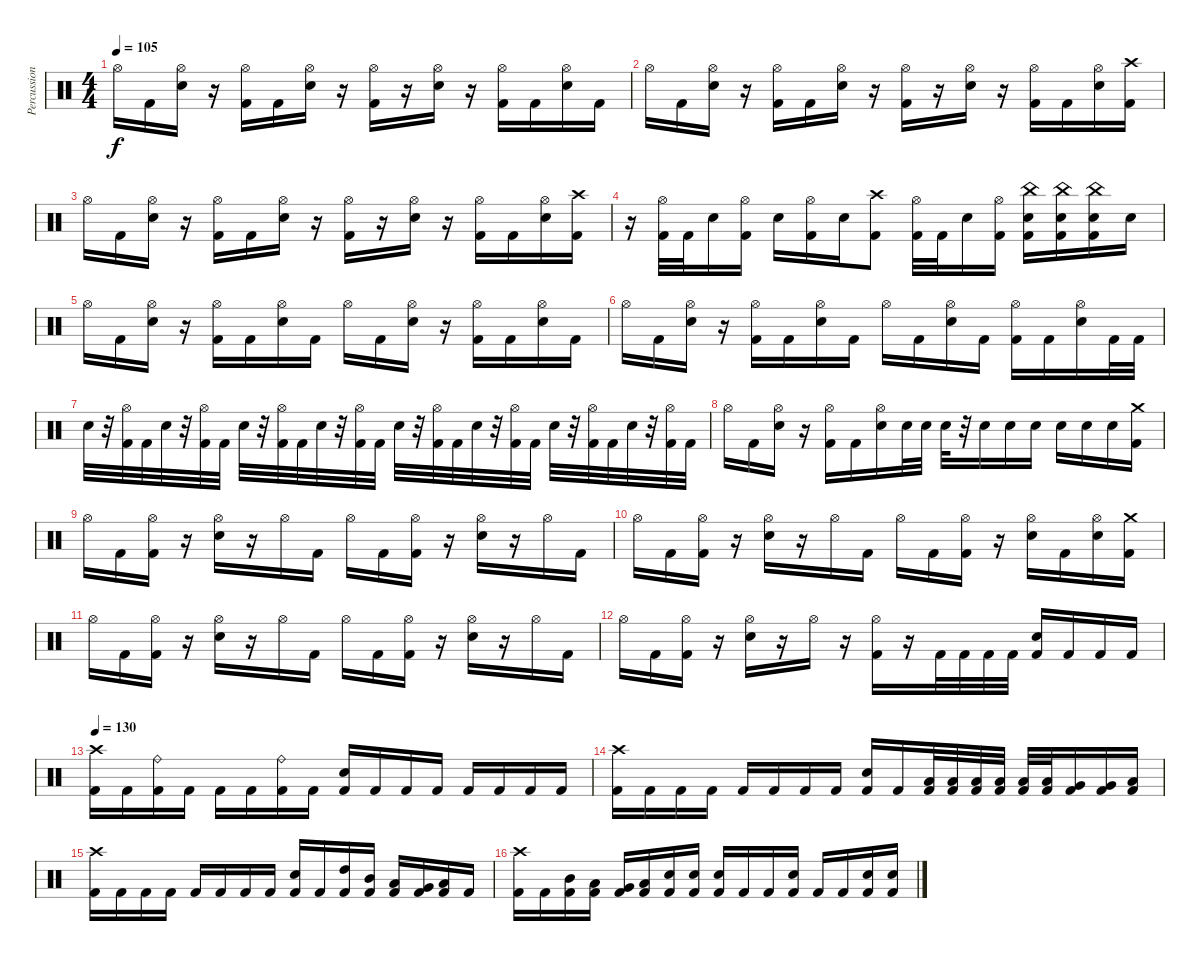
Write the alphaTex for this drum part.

\track ("Percussion" "Percussion") {instrument percussion}
\staff {score}
\articulation defaults
\ts (4 4)
\tempo 105
\clef neutral
\ks c "Hi-Hat (open)".16{dy f} "Kick (hit) 2".16
("Hi-Hat (open)" "Electric Snare (hit)").16 r.16 ("Hi-Hat (open)" "Kick (hit) 2").16 "Kick (hit) 2".16 ("Hi-Hat (open)" "Electric Snare (hit)").16 r.16 ("Hi-Hat (open)" "Kick (hit) 2").16 r.16 ("Hi-Hat (open)" "Electric Snare (hit)").16 r.16 ("Hi-Hat (open)" "Kick (hit) 2").16 "Kick (hit) 2".16 ("Hi-Hat (open)" "Electric Snare (hit)").16 "Kick (hit) 2".16 |
"Hi-Hat (open)".16 "Kick (hit) 2".16 ("Hi-Hat (open)" "Electric Snare (hit)").16 r.16 ("Hi-Hat (open)" "Kick (hit) 2").16 "Kick (hit) 2".16 ("Hi-Hat (open)" "Electric Snare (hit)").16 r.16 ("Hi-Hat (open)" "Kick (hit) 2").16 r.16 ("Hi-Hat (open)" "Electric Snare (hit)").16 r.16 ("Hi-Hat (open)" "Kick (hit) 2").16 "Kick (hit) 2".16 ("Hi-Hat (open)" "Electric Snare (hit)").16 ("Crash high (hit)" "Kick (hit) 2").16 |
"Hi-Hat (open)".16 "Kick (hit) 2".16 ("Hi-Hat (open)" "Electric Snare (hit)").16 r.16 ("Hi-Hat (open)" "Kick (hit) 2").16 "Kick (hit) 2".16 ("Hi-Hat (open)" "Electric Snare (hit)").16 r.16 ("Hi-Hat (open)" "Kick (hit) 2").16 r.16 ("Hi-Hat (open)" "Electric Snare (hit)").16 r.16 ("Hi-Hat (open)" "Kick (hit) 2").16 "Kick (hit) 2".16 ("Hi-Hat (open)" "Electric Snare (hit)").16 ("Crash high (hit)" "Kick (hit) 2").16 |
r.16 ("Hi-Hat (open)" "Kick (hit) 2").32 "Kick (hit) 2".32 "Electric Snare (hit)".16 ("Hi-Hat (open)" "Kick (hit) 2").16 "Electric Snare (hit)".16 ("Hi-Hat (open)" "Kick (hit) 2").16 "Electric Snare (hit)".16 ("Crash high (hit)" "Kick (hit) 2").8 ("Hi-Hat (open)" "Kick (hit) 2").32 "Kick (hit) 2".32 "Electric Snare (hit)".16 ("Hi-Hat (open)" "Kick (hit) 2").16 ("China (hit)" "Electric Snare (hit)" "Kick (hit) 2").16 ("China (hit)" "Electric Snare (hit)" "Kick (hit) 2").16 ("China (hit)" "Electric Snare (hit)" "Kick (hit) 2").16 "Electric Snare (hit)".16 |
"Hi-Hat (open)".16 "Kick (hit) 2".16 ("Hi-Hat (open)" "Electric Snare (hit)").16 r.16 ("Hi-Hat (open)" "Kick (hit) 2").16 "Kick (hit) 2".16 ("Hi-Hat (open)" "Electric Snare (hit)").16 "Kick (hit) 2".16 "Hi-Hat (open)".16 "Kick (hit) 2".16 ("Hi-Hat (open)" "Electric Snare (hit)").16 r.16 ("Hi-Hat (open)" "Kick (hit) 2").16 "Kick (hit) 2".16 ("Hi-Hat (open)" "Electric Snare (hit)").16 "Kick (hit) 2".16 |
"Hi-Hat (open)".16 "Kick (hit) 2".16 ("Hi-Hat (open)" "Electric Snare (hit)").16 r.16 ("Hi-Hat (open)" "Kick (hit) 2").16 "Kick (hit) 2".16 ("Hi-Hat (open)" "Electric Snare (hit)").16 "Kick (hit) 2".16 "Hi-Hat (open)".16 "Kick (hit) 2".16 ("Hi-Hat (open)" "Electric Snare (hit)").16 "Kick (hit) 2".16 ("Hi-Hat (open)" "Kick (hit) 2").16 "Kick (hit) 2".16 ("Hi-Hat (open)" "Electric Snare (hit)").16 "Kick (hit) 2".32 "Kick (hit) 2".32 |
"Electric Snare (hit)".32 r.32 ("Hi-Hat (open)" "Kick (hit) 2").32 "Kick (hit) 2".32 "Electric Snare (hit)".32 r.32 ("Hi-Hat (open)" "Kick (hit) 2").32 "Kick (hit) 2".32 "Electric Snare (hit)".32 r.32 ("Hi-Hat (open)" "Kick (hit) 2").32 "Kick (hit) 2".32 "Electric Snare (hit)".32 r.32 ("Hi-Hat (open)" "Kick (hit) 2").32 "Kick (hit) 2".32 "Electric Snare (hit)".32 r.32 ("Hi-Hat (open)" "Kick (hit) 2").32 "Kick (hit) 2".32 "Electric Snare (hit)".32 r.32 ("Hi-Hat (open)" "Kick (hit) 2").32 "Kick (hit) 2".32 "Electric Snare (hit)".32 r.32 ("Hi-Hat (open)" "Kick (hit) 2").32 "Kick (hit) 2".32 "Electric Snare (hit)".32 r.32 ("Hi-Hat (open)" "Kick (hit) 2").32 "Kick (hit) 2".32 |
"Hi-Hat (open)".16 "Kick (hit) 2".16 ("Hi-Hat (open)" "Electric Snare (hit)").16 r.16 ("Hi-Hat (open)" "Kick (hit) 2").16 "Kick (hit) 2".16 ("Hi-Hat (open)" "Electric Snare (hit)").16 "Electric Snare (hit)".32 "Electric Snare (hit)".32 "Electric Snare (hit)".32 r.32 "Electric Snare (hit)".16 "Electric Snare (hit)".16 "Electric Snare (hit)".16 "Electric Snare (hit)".16 "Electric Snare (hit)".16 "Electric Snare (hit)".16 ("Crash medium (hit)" "Kick (hit) 2").16 |
"Hi-Hat (open)".16 "Kick (hit) 2".16 ("Hi-Hat (open)" "Kick (hit) 2").16 r.16 ("Hi-Hat (open)" "Electric Snare (hit)").16 r.16 "Hi-Hat (open)".16 "Kick (hit) 2".16 "Hi-Hat (open)".16 "Kick (hit) 2".16 ("Hi-Hat (open)" "Kick (hit) 2").16 r.16 ("Hi-Hat (open)" "Electric Snare (hit)").16 r.16 "Hi-Hat (open)".16 "Kick (hit) 2".16 |
"Hi-Hat (open)".16 "Kick (hit) 2".16 ("Hi-Hat (open)" "Kick (hit) 2").16 r.16 ("Hi-Hat (open)" "Electric Snare (hit)").16 r.16 "Hi-Hat (open)".16 "Kick (hit) 2".16 "Hi-Hat (open)".16 "Kick (hit) 2".16 ("Hi-Hat (open)" "Kick (hit) 2").16 r.16 ("Hi-Hat (open)" "Electric Snare (hit)").16 "Kick (hit) 2".16 ("Hi-Hat (open)" "Electric Snare (hit)").16 ("Crash medium (hit)" "Kick (hit) 2").16 |
"Hi-Hat (open)".16 "Kick (hit) 2".16 ("Hi-Hat (open)" "Kick (hit) 2").16 r.16 ("Hi-Hat (open)" "Electric Snare (hit)").16 r.16 "Hi-Hat (open)".16 "Kick (hit) 2".16 "Hi-Hat (open)".16 "Kick (hit) 2".16 ("Hi-Hat (open)" "Kick (hit) 2").16 r.16 ("Hi-Hat (open)" "Electric Snare (hit)").16 r.16 "Hi-Hat (open)".16 "Kick (hit) 2".16 |
"Hi-Hat (open)".16 "Kick (hit) 2".16 ("Hi-Hat (open)" "Kick (hit) 2").16 r.16 ("Hi-Hat (open)" "Electric Snare (hit)").16 r.16 "Hi-Hat (open)".16 r.16 ("Hi-Hat (open)" "Kick (hit) 2").16 r.16 "Kick (hit) 2".32 "Kick (hit) 2".32 "Kick (hit) 2".32 "Kick (hit) 2".32 ("Electric Snare (hit)" "Kick (hit) 2").16 "Kick (hit) 2".16 "Kick (hit) 2".16 "Kick (hit) 2".16 |
\tempo 130
("Crash high (hit)" "Kick (hit) 2").16 "Kick (hit) 2".16 ("Ride (bell)" "Kick (hit) 2").16 "Kick (hit) 2".16 "Kick (hit) 2".16 "Kick (hit) 2".16 ("Ride (bell)" "Kick (hit) 2").16 "Kick (hit) 2".16 ("Electric Snare (hit)" "Kick (hit) 2").16 "Kick (hit) 2".16 "Kick (hit) 2".16 "Kick (hit) 2".16 "Kick (hit) 2".16 "Kick (hit) 2".16 "Kick (hit) 2".16 "Kick (hit) 2".16 |
("Crash high (hit)" "Kick (hit) 2").16 "Kick (hit) 2".16 "Kick (hit) 2".16 "Kick (hit) 2".16 "Kick (hit) 2".16 "Kick (hit) 2".16 "Kick (hit) 2".16 "Kick (hit) 2".16 ("Electric Snare (hit)" "Kick (hit) 2").16 "Kick (hit) 2".16 ("Low Tom (hit)" "Kick (hit) 2").32 ("Low Tom (hit)" "Kick (hit) 2").32 ("Low Tom (hit)" "Kick (hit) 2").32 ("Low Tom (hit)" "Kick (hit) 2").32 ("Low Tom (hit)" "Kick (hit) 2").32 ("Low Tom (hit)" "Kick (hit) 2").32 ("Very Low Tom (hit)" "Kick (hit) 2").16 ("Very Low Tom (hit)" "Kick (hit) 2").16 ("Low Floor Tom (hit)" "Kick (hit) 2").16 |
("Crash high (hit)" "Kick (hit) 2").16 "Kick (hit) 2".16 "Kick (hit) 2".16 "Kick (hit) 2".16 "Kick (hit) 2".16 "Kick (hit) 2".16 "Kick (hit) 2".16 "Kick (hit) 2".16 ("Electric Snare (hit)" "Kick (hit) 2").16 "Kick (hit) 2".16 ("High Tom (hit)" "Kick (hit) 2").16 ("Mid Tom (hit)" "Kick (hit) 2").16 ("Low Tom (hit)" "Kick (hit) 2").16 ("Very Low Tom (hit)" "Kick (hit) 2").16 ("Low Floor Tom (hit)" "Kick (hit) 2").16 "Kick (hit) 2".16 |
("Crash high (hit)" "Kick (hit) 2").16 "Kick (hit) 2".16 ("Mid Tom (hit)" "Kick (hit) 2").16 ("Low Tom (hit)" "Kick (hit) 2").16 ("Very Low Tom (hit)" "Kick (hit) 2").16 ("Low Floor Tom (hit)" "Kick (hit) 2").16 ("Electric Snare (hit)" "Kick (hit) 2").16 ("Electric Snare (hit)" "Kick (hit) 2").16 ("Electric Snare (hit)" "Kick (hit) 2").16 "Kick (hit) 2".16 "Kick (hit) 2".16 ("Electric Snare (hit)" "Kick (hit) 2").16 "Kick (hit) 2".16 "Kick (hit) 2".16 ("Electric Snare (hit)" "Kick (hit) 2").16 ("Electric Snare (hit)" "Kick (hit) 2").16
